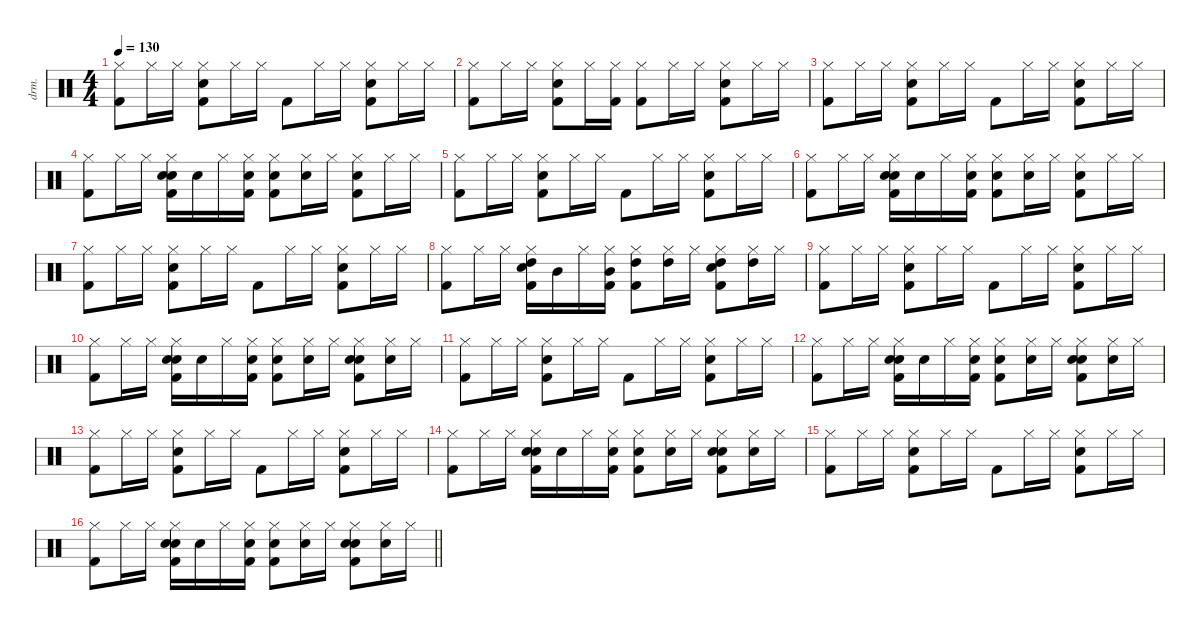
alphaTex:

\defaultSystemsLayout 4
\hideDynamics
\bracketExtendMode nobrackets
\otherSystemsTrackNameOrientation horizontal
\track ("Percussion" "drm.") {defaultSystemsLayout 4 instrument percussion}
\staff {score}
\articulation defaults
\ts (4 4)
\tempo 130
\clef neutral
\ks c
("Hi-Hat (closed)" "Kick (hit) 2").8{dy f beam Down} "Hi-Hat (closed)".16{beam Down} "Hi-Hat (closed)".16{beam Down} ("Hi-Hat (closed)" "Snare (hit) 2" "Kick (hit) 2").8{beam Down} "Hi-Hat (closed)".16{beam Down} "Hi-Hat (closed)".16{beam Down} "Kick (hit) 2".8{beam Down} "Hi-Hat (closed)".16{beam Down} "Hi-Hat (closed)".16{beam Down} ("Hi-Hat (closed)" "Snare (hit) 2" "Kick (hit) 2").8{beam Down} "Hi-Hat (closed)".16{beam Down} "Hi-Hat (closed)".16{beam Down} |
("Hi-Hat (closed)" "Kick (hit) 2").8{beam Down} "Hi-Hat (closed)".16{beam Down} "Hi-Hat (closed)".16{beam Down} ("Hi-Hat (closed)" "Snare (hit) 2" "Kick (hit) 2").8{beam Down} "Hi-Hat (closed)".16{beam Down} ("Hi-Hat (closed)" "Kick (hit) 2").16{beam Down} ("Hi-Hat (closed)" "Kick (hit) 2").8{beam Down} "Hi-Hat (closed)".16{beam Down} "Hi-Hat (closed)".16{beam Down} ("Hi-Hat (closed)" "Snare (hit) 2" "Kick (hit) 2").8{beam Down} "Hi-Hat (closed)".16{beam Down} "Hi-Hat (closed)".16{beam Down} |
("Hi-Hat (closed)" "Kick (hit) 2").8{beam Down} "Hi-Hat (closed)".16{beam Down} "Hi-Hat (closed)".16{beam Down} ("Hi-Hat (closed)" "Snare (hit) 2" "Kick (hit) 2").8{beam Down} "Hi-Hat (closed)".16{beam Down} "Hi-Hat (closed)".16{beam Down} "Kick (hit) 2".8{beam Down} "Hi-Hat (closed)".16{beam Down} "Hi-Hat (closed)".16{beam Down} ("Hi-Hat (closed)" "Snare (hit) 2" "Kick (hit) 2").8{beam Down} "Hi-Hat (closed)".16{beam Down} "Hi-Hat (closed)".16{beam Down} |
("Hi-Hat (closed)" "Kick (hit) 2").8{beam Down} "Hi-Hat (closed)".16{beam Down} "Hi-Hat (closed)".16{beam Down} ("Hi-Hat (closed)" "Hand Clap (hit)" "Snare (hit) 2" "Kick (hit) 2").16{beam Down} "Hand Clap (hit)".16{beam Down} "Hi-Hat (closed)".16{beam Down} ("Hi-Hat (closed)" "Hand Clap (hit)" "Kick (hit) 2").16{beam Down} ("Hi-Hat (closed)" "Hand Clap (hit)" "Kick (hit) 2").8{beam Down} ("Hi-Hat (closed)" "Hand Clap (hit)").16{beam Down} "Hi-Hat (closed)".16{beam Down} ("Hi-Hat (closed)" "Snare (hit) 2" "Kick (hit) 2").8{beam Down} "Hi-Hat (closed)".16{beam Down} "Hi-Hat (closed)".16{beam Down} |
("Hi-Hat (closed)" "Kick (hit) 2").8{beam Down} "Hi-Hat (closed)".16{beam Down} "Hi-Hat (closed)".16{beam Down} ("Hi-Hat (closed)" "Snare (hit) 2" "Kick (hit) 2").8{beam Down} "Hi-Hat (closed)".16{beam Down} "Hi-Hat (closed)".16{beam Down} "Kick (hit) 2".8{beam Down} "Hi-Hat (closed)".16{beam Down} "Hi-Hat (closed)".16{beam Down} ("Hi-Hat (closed)" "Snare (hit) 2" "Kick (hit) 2").8{beam Down} "Hi-Hat (closed)".16{beam Down} "Hi-Hat (closed)".16{beam Down} |
("Hi-Hat (closed)" "Kick (hit) 2").8{beam Down} "Hi-Hat (closed)".16{beam Down} "Hi-Hat (closed)".16{beam Down} ("Hi-Hat (closed)" "Hand Clap (hit)" "Snare (hit) 2" "Kick (hit) 2").16{beam Down} "Hand Clap (hit)".16{beam Down} "Hi-Hat (closed)".16{beam Down} ("Hi-Hat (closed)" "Hand Clap (hit)" "Kick (hit) 2").16{beam Down} ("Hi-Hat (closed)" "Hand Clap (hit)" "Kick (hit) 2").8{beam Down} ("Hi-Hat (closed)" "Hand Clap (hit)").16{beam Down} "Hi-Hat (closed)".16{beam Down} ("Hi-Hat (closed)" "Snare (hit) 2" "Kick (hit) 2").8{beam Down} "Hi-Hat (closed)".16{beam Down} "Hi-Hat (closed)".16{beam Down} |
("Hi-Hat (closed)" "Kick (hit) 2").8{beam Down} "Hi-Hat (closed)".16{beam Down} "Hi-Hat (closed)".16{beam Down} ("Hi-Hat (closed)" "Snare (hit) 2" "Kick (hit) 2").8{beam Down} "Hi-Hat (closed)".16{beam Down} "Hi-Hat (closed)".16{beam Down} "Kick (hit) 2".8{beam Down} "Hi-Hat (closed)".16{beam Down} "Hi-Hat (closed)".16{beam Down} ("Hi-Hat (closed)" "Snare (hit) 2" "Kick (hit) 2").8{beam Down} "Hi-Hat (closed)".16{beam Down} "Hi-Hat (closed)".16{beam Down} |
("Hi-Hat (closed)" "Kick (hit) 2").8{beam Down} "Hi-Hat (closed)".16{beam Down} "Hi-Hat (closed)".16{beam Down} ("Hi-Hat (closed)" "High Tom (hit)" "Snare (hit) 2" "Kick (hit) 2").16{beam Down} "Mid Tom (hit)".16{beam Down} "Hi-Hat (closed)".16{beam Down} ("Hi-Hat (closed)" "Mid Tom (hit)" "Kick (hit) 2").16{beam Down} ("Hi-Hat (closed)" "High Tom (hit)" "Kick (hit) 2").8{beam Down} ("Hi-Hat (closed)" "High Tom (hit)").16{beam Down} "Hi-Hat (closed)".16{beam Down} ("Hi-Hat (closed)" "High Tom (hit)" "Snare (hit) 2" "Kick (hit) 2").8{beam Down} ("Hi-Hat (closed)" "High Tom (hit)").16{beam Down} "Hi-Hat (closed)".16{beam Down} |
("Hi-Hat (closed)" "Kick (hit) 2").8{beam Down} "Hi-Hat (closed)".16{beam Down} "Hi-Hat (closed)".16{beam Down} ("Hi-Hat (closed)" "Snare (hit) 2" "Kick (hit) 2").8{beam Down} "Hi-Hat (closed)".16{beam Down} "Hi-Hat (closed)".16{beam Down} "Kick (hit) 2".8{beam Down} "Hi-Hat (closed)".16{beam Down} "Hi-Hat (closed)".16{beam Down} ("Hi-Hat (closed)" "Snare (hit) 2" "Kick (hit) 2").8{beam Down} "Hi-Hat (closed)".16{beam Down} "Hi-Hat (closed)".16{beam Down} |
("Hi-Hat (closed)" "Kick (hit) 2").8{beam Down} "Hi-Hat (closed)".16{beam Down} "Hi-Hat (closed)".16{beam Down} ("Hi-Hat (closed)" "Hand Clap (hit)" "Snare (hit) 2" "Kick (hit) 2").16{beam Down} "Hand Clap (hit)".16{beam Down} "Hi-Hat (closed)".16{beam Down} ("Hi-Hat (closed)" "Hand Clap (hit)" "Kick (hit) 2").16{beam Down} ("Hi-Hat (closed)" "Hand Clap (hit)" "Kick (hit) 2").8{beam Down} ("Hi-Hat (closed)" "Hand Clap (hit)").16{beam Down} "Hi-Hat (closed)".16{beam Down} ("Hi-Hat (closed)" "Hand Clap (hit)" "Snare (hit) 2" "Kick (hit) 2").8{beam Down} ("Hi-Hat (closed)" "Hand Clap (hit)").16{beam Down} "Hi-Hat (closed)".16{beam Down} |
("Hi-Hat (closed)" "Kick (hit) 2").8{beam Down} "Hi-Hat (closed)".16{beam Down} "Hi-Hat (closed)".16{beam Down} ("Hi-Hat (closed)" "Snare (hit) 2" "Kick (hit) 2").8{beam Down} "Hi-Hat (closed)".16{beam Down} "Hi-Hat (closed)".16{beam Down} "Kick (hit) 2".8{beam Down} "Hi-Hat (closed)".16{beam Down} "Hi-Hat (closed)".16{beam Down} ("Hi-Hat (closed)" "Snare (hit) 2" "Kick (hit) 2").8{beam Down} "Hi-Hat (closed)".16{beam Down} "Hi-Hat (closed)".16{beam Down} |
("Hi-Hat (closed)" "Kick (hit) 2").8{beam Down} "Hi-Hat (closed)".16{beam Down} "Hi-Hat (closed)".16{beam Down} ("Hi-Hat (closed)" "Hand Clap (hit)" "Snare (hit) 2" "Kick (hit) 2").16{beam Down} "Hand Clap (hit)".16{beam Down} "Hi-Hat (closed)".16{beam Down} ("Hi-Hat (closed)" "Hand Clap (hit)" "Kick (hit) 2").16{beam Down} ("Hi-Hat (closed)" "Hand Clap (hit)" "Kick (hit) 2").8{beam Down} ("Hi-Hat (closed)" "Hand Clap (hit)").16{beam Down} "Hi-Hat (closed)".16{beam Down} ("Hi-Hat (closed)" "Hand Clap (hit)" "Snare (hit) 2" "Kick (hit) 2").8{beam Down} ("Hi-Hat (closed)" "Hand Clap (hit)").16{beam Down} "Hi-Hat (closed)".16{beam Down} |
("Hi-Hat (closed)" "Kick (hit) 2").8{beam Down} "Hi-Hat (closed)".16{beam Down} "Hi-Hat (closed)".16{beam Down} ("Hi-Hat (closed)" "Snare (hit) 2" "Kick (hit) 2").8{beam Down} "Hi-Hat (closed)".16{beam Down} "Hi-Hat (closed)".16{beam Down} "Kick (hit) 2".8{beam Down} "Hi-Hat (closed)".16{beam Down} "Hi-Hat (closed)".16{beam Down} ("Hi-Hat (closed)" "Snare (hit) 2" "Kick (hit) 2").8{beam Down} "Hi-Hat (closed)".16{beam Down} "Hi-Hat (closed)".16{beam Down} |
("Hi-Hat (closed)" "Kick (hit) 2").8{beam Down} "Hi-Hat (closed)".16{beam Down} "Hi-Hat (closed)".16{beam Down} ("Hi-Hat (closed)" "Hand Clap (hit)" "Snare (hit) 2" "Kick (hit) 2").16{beam Down} "Hand Clap (hit)".16{beam Down} "Hi-Hat (closed)".16{beam Down} ("Hi-Hat (closed)" "Hand Clap (hit)" "Kick (hit) 2").16{beam Down} ("Hi-Hat (closed)" "Hand Clap (hit)" "Kick (hit) 2").8{beam Down} ("Hi-Hat (closed)" "Hand Clap (hit)").16{beam Down} "Hi-Hat (closed)".16{beam Down} ("Hi-Hat (closed)" "Hand Clap (hit)" "Snare (hit) 2" "Kick (hit) 2").8{beam Down} ("Hi-Hat (closed)" "Hand Clap (hit)").16{beam Down} "Hi-Hat (closed)".16{beam Down} |
("Hi-Hat (closed)" "Kick (hit) 2").8{beam Down} "Hi-Hat (closed)".16{beam Down} "Hi-Hat (closed)".16{beam Down} ("Hi-Hat (closed)" "Snare (hit) 2" "Kick (hit) 2").8{beam Down} "Hi-Hat (closed)".16{beam Down} "Hi-Hat (closed)".16{beam Down} "Kick (hit) 2".8{beam Down} "Hi-Hat (closed)".16{beam Down} "Hi-Hat (closed)".16{beam Down} ("Hi-Hat (closed)" "Snare (hit) 2" "Kick (hit) 2").8{beam Down} "Hi-Hat (closed)".16{beam Down} "Hi-Hat (closed)".16{beam Down} |
\barLineRight lightlight
("Hi-Hat (closed)" "Kick (hit) 2").8{beam Down} "Hi-Hat (closed)".16{beam Down} "Hi-Hat (closed)".16{beam Down} ("Hi-Hat (closed)" "Hand Clap (hit)" "Snare (hit) 2" "Kick (hit) 2").16{beam Down} "Hand Clap (hit)".16{beam Down} "Hi-Hat (closed)".16{beam Down} ("Hi-Hat (closed)" "Hand Clap (hit)" "Kick (hit) 2").16{beam Down} ("Hi-Hat (closed)" "Hand Clap (hit)" "Kick (hit) 2").8{beam Down} ("Hi-Hat (closed)" "Hand Clap (hit)").16{beam Down} "Hi-Hat (closed)".16{beam Down} ("Hi-Hat (closed)" "Hand Clap (hit)" "Snare (hit) 2" "Kick (hit) 2").8{beam Down} ("Hi-Hat (closed)" "Hand Clap (hit)").16{beam Down} "Hi-Hat (closed)".16{beam Down}
